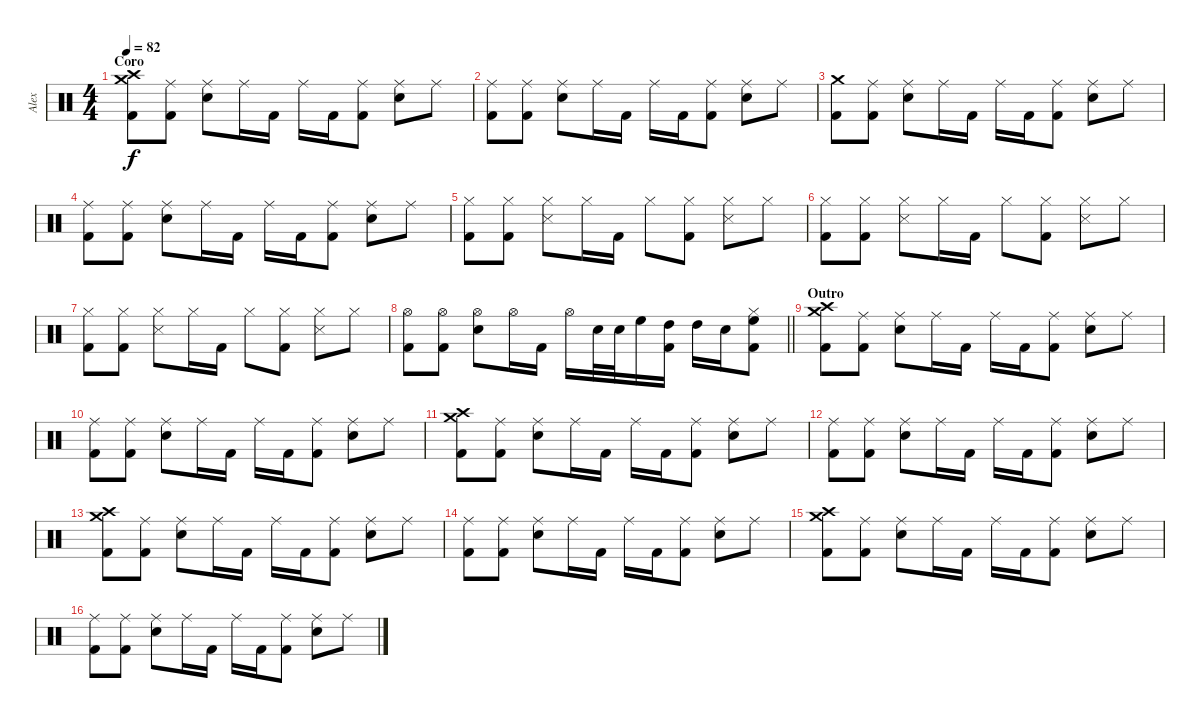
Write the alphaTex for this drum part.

\track ("Alex" "Alex") {instrument percussion}
\staff {score}
\articulation defaults
\ts (4 4)
\section ("" "Coro")
\tempo 82
\clef neutral
\ks c
("Crash medium (hit)" "Crash high (hit)" "Kick (hit) 2").8{dy f} ("Ride (middle)" "Kick (hit) 2").8 ("Ride (middle)" "Electric Snare (hit)").8 "Ride (middle)".16 "Kick (hit) 2".16 "Ride (middle)".16 "Kick (hit) 2".16 ("Ride (middle)" "Kick (hit) 2").8 ("Ride (middle)" "Electric Snare (hit)").8 "Ride (middle)".8 |
("Ride (middle)" "Kick (hit) 2").8 ("Ride (middle)" "Kick (hit) 2").8 ("Ride (middle)" "Electric Snare (hit)").8 "Ride (middle)".16 "Kick (hit) 2".16 "Ride (middle)".16 "Kick (hit) 2".16 ("Ride (middle)" "Kick (hit) 2").8 ("Ride (middle)" "Electric Snare (hit)").8 "Ride (middle)".8 |
("Crash medium (hit)" "Kick (hit) 2").8 ("Ride (middle)" "Kick (hit) 2").8 ("Ride (middle)" "Electric Snare (hit)").8 "Ride (middle)".16 "Kick (hit) 2".16 "Ride (middle)".16 "Kick (hit) 2".16 ("Ride (middle)" "Kick (hit) 2").8 ("Ride (middle)" "Electric Snare (hit)").8 "Ride (middle)".8 |
("Ride (middle)" "Kick (hit) 2").8 ("Ride (middle)" "Kick (hit) 2").8 ("Ride (middle)" "Electric Snare (hit)").8 "Ride (middle)".16 "Kick (hit) 2".16 "Ride (middle)".16 "Kick (hit) 2".16 ("Ride (middle)" "Kick (hit) 2").8 ("Ride (middle)" "Electric Snare (hit)").8 "Ride (middle)".8 |
("Hi-Hat (closed)" "Kick (hit) 2").8 ("Hi-Hat (closed)" "Kick (hit) 2").8 ("Hi-Hat (closed)" "Snare (side stick) 3").8 "Hi-Hat (closed)".16 "Kick (hit) 2".16 "Hi-Hat (closed)".8 ("Hi-Hat (closed)" "Kick (hit) 2").8 ("Hi-Hat (closed)" "Snare (side stick) 3").8 "Hi-Hat (closed)".8 |
("Hi-Hat (closed)" "Kick (hit) 2").8 ("Hi-Hat (closed)" "Kick (hit) 2").8 ("Hi-Hat (closed)" "Snare (side stick) 3").8 "Hi-Hat (closed)".16 "Kick (hit) 2".16 "Hi-Hat (closed)".8 ("Hi-Hat (closed)" "Kick (hit) 2").8 ("Hi-Hat (closed)" "Snare (side stick) 3").8 "Hi-Hat (closed)".8 |
("Hi-Hat (closed)" "Kick (hit) 2").8 ("Hi-Hat (closed)" "Kick (hit) 2").8 ("Hi-Hat (closed)" "Snare (side stick) 3").8 "Hi-Hat (closed)".16 "Kick (hit) 2".16 "Hi-Hat (closed)".8 ("Hi-Hat (closed)" "Kick (hit) 2").8 ("Hi-Hat (closed)" "Snare (side stick) 3").8 "Hi-Hat (closed)".8 |
\barLineRight lightlight
("Hi-Hat (open)" "Kick (hit) 2").8 ("Hi-Hat (open)" "Kick (hit) 2").8 ("Hi-Hat (open)" "Electric Snare (hit)").8 "Hi-Hat (open)".16 "Kick (hit) 2".16 "Hi-Hat (open)".16{volume 14} "Electric Snare (hit)".32 "Electric Snare (hit)".32 "High Floor Tom (hit)".16 ("Kick (hit) 2" "High Tom (hit)").16 "High Tom (hit)".16 "Electric Snare (hit)".16 ("Kick (hit) 2" "High Floor Tom (hit)" "Hi-Hat (closed)").8 |
\section ("" "Outro")
("Crash medium (hit)" "Crash high (hit)" "Kick (hit) 2").8 ("Ride (middle)" "Kick (hit) 2").8 ("Ride (middle)" "Electric Snare (hit)").8 "Ride (middle)".16 "Kick (hit) 2".16 "Ride (middle)".16 "Kick (hit) 2".16 ("Ride (middle)" "Kick (hit) 2").8 ("Ride (middle)" "Electric Snare (hit)").8 "Ride (middle)".8 |
("Ride (middle)" "Kick (hit) 2").8 ("Ride (middle)" "Kick (hit) 2").8 ("Ride (middle)" "Electric Snare (hit)").8 "Ride (middle)".16 "Kick (hit) 2".16 "Ride (middle)".16 "Kick (hit) 2".16 ("Ride (middle)" "Kick (hit) 2").8 ("Ride (middle)" "Electric Snare (hit)").8 "Ride (middle)".8 |
("Crash medium (hit)" "Crash high (hit)" "Kick (hit) 2").8 ("Ride (middle)" "Kick (hit) 2").8 ("Ride (middle)" "Electric Snare (hit)").8 "Ride (middle)".16 "Kick (hit) 2".16 "Ride (middle)".16 "Kick (hit) 2".16 ("Ride (middle)" "Kick (hit) 2").8 ("Ride (middle)" "Electric Snare (hit)").8 "Ride (middle)".8 |
("Ride (middle)" "Kick (hit) 2").8 ("Ride (middle)" "Kick (hit) 2").8 ("Ride (middle)" "Electric Snare (hit)").8 "Ride (middle)".16 "Kick (hit) 2".16 "Ride (middle)".16 "Kick (hit) 2".16 ("Ride (middle)" "Kick (hit) 2").8 ("Ride (middle)" "Electric Snare (hit)").8 "Ride (middle)".8 |
("Crash medium (hit)" "Crash high (hit)" "Kick (hit) 2").8 ("Ride (middle)" "Kick (hit) 2").8 ("Ride (middle)" "Electric Snare (hit)").8 "Ride (middle)".16 "Kick (hit) 2".16 "Ride (middle)".16 "Kick (hit) 2".16 ("Ride (middle)" "Kick (hit) 2").8 ("Ride (middle)" "Electric Snare (hit)").8 "Ride (middle)".8 |
("Ride (middle)" "Kick (hit) 2").8 ("Ride (middle)" "Kick (hit) 2").8 ("Ride (middle)" "Electric Snare (hit)").8 "Ride (middle)".16 "Kick (hit) 2".16 "Ride (middle)".16 "Kick (hit) 2".16 ("Ride (middle)" "Kick (hit) 2").8 ("Ride (middle)" "Electric Snare (hit)").8 "Ride (middle)".8 |
("Crash medium (hit)" "Crash high (hit)" "Kick (hit) 2").8 ("Ride (middle)" "Kick (hit) 2").8 ("Ride (middle)" "Electric Snare (hit)").8 "Ride (middle)".16 "Kick (hit) 2".16 "Ride (middle)".16 "Kick (hit) 2".16 ("Ride (middle)" "Kick (hit) 2").8 ("Ride (middle)" "Electric Snare (hit)").8 "Ride (middle)".8 |
("Ride (middle)" "Kick (hit) 2").8 ("Ride (middle)" "Kick (hit) 2").8 ("Ride (middle)" "Electric Snare (hit)").8 "Ride (middle)".16 "Kick (hit) 2".16 "Ride (middle)".16 "Kick (hit) 2".16 ("Ride (middle)" "Kick (hit) 2").8 ("Ride (middle)" "Electric Snare (hit)").8 "Ride (middle)".8
